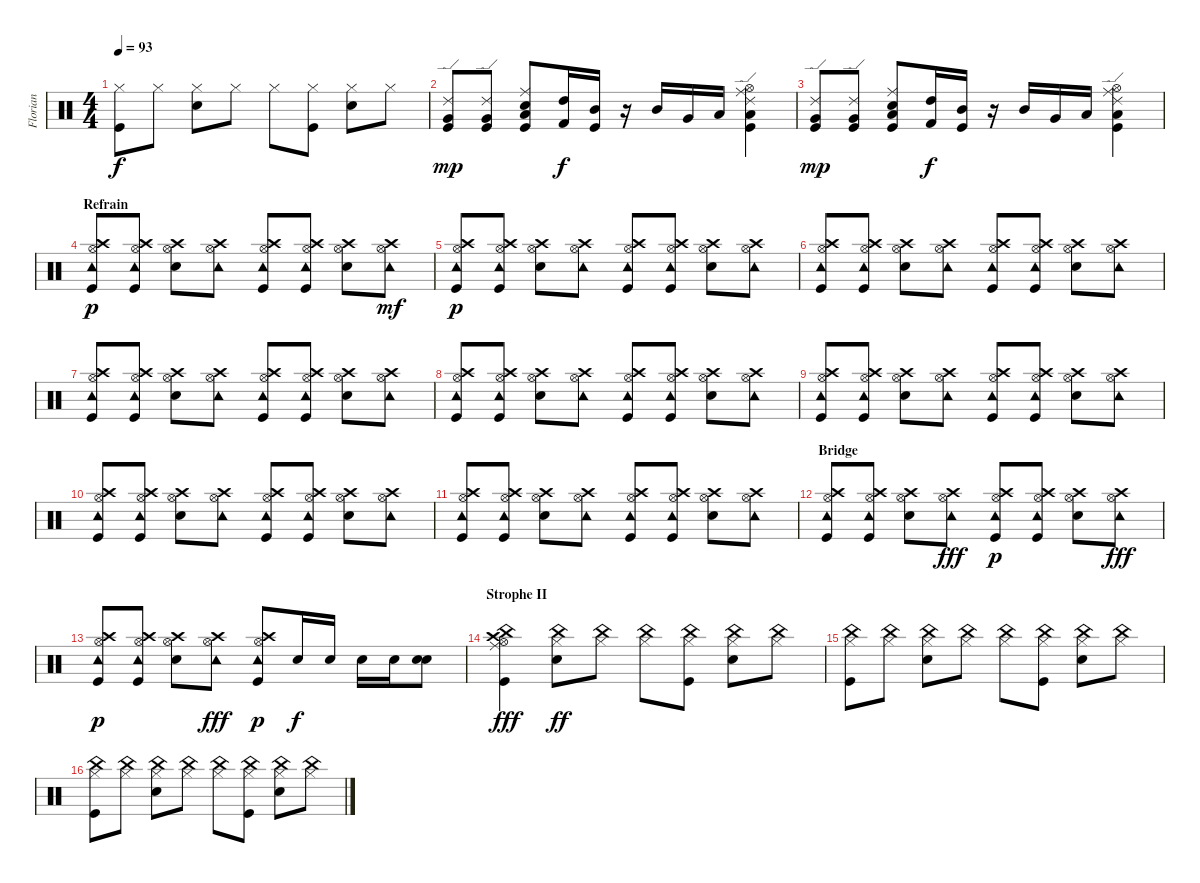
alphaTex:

\track ("Florian" "Florian") {instrument percussion}
\staff {score}
\articulation defaults
\ts (4 4)
\tempo 93
\clef neutral
\ks c
("Hi-Hat (closed)" "Kick (hit)").8{dy f} "Hi-Hat (closed)".8 ("Hi-Hat (closed)" "Snare (hit) 2").8 "Hi-Hat (closed)".8 "Hi-Hat (closed)".8 ("Hi-Hat (closed)" "Kick (hit)").8 ("Hi-Hat (closed)" "Snare (hit) 2").8 "Hi-Hat (closed)".8 |
("Ride (edge) 2" "Kick (hit)" "Very Low Tom (hit)").8{dy mp} ("Ride (edge) 2" "Kick (hit)" "Very Low Tom (hit)").8 ("Ride (middle)" "Snare (hit) 2" "Kick (hit)" "Low Tom (hit)").8 ("Kick (hit) 2" "High Tom (hit)").16{dy f} ("Kick (hit)" "Mid Tom (hit)").16 r.16 "Mid Tom (hit)".16 "Very Low Tom (hit)".16 "Low Tom (hit)".16 ("Ride (edge) 2" "Ride (middle)" "Hi-Hat (open)" "Low Tom (hit)" "Kick (hit)").4 |
("Ride (edge) 2" "Kick (hit)" "Very Low Tom (hit)").8{dy mp} ("Ride (edge) 2" "Kick (hit)" "Very Low Tom (hit)").8 ("Ride (middle)" "Snare (hit) 2" "Kick (hit)" "Low Tom (hit)").8 ("Kick (hit) 2" "High Tom (hit)").16{dy f} ("Kick (hit)" "Mid Tom (hit)").16 r.16 "Mid Tom (hit)".16 "Very Low Tom (hit)".16 "Low Tom (hit)".16 ("Ride (edge) 2" "Ride (middle)" "Hi-Hat (open)" "Low Tom (hit)" "Kick (hit)").4 |
\section ("" "Refrain")
("Crash high (hit)" "Hi-Hat (open)" "Tambourine (hit)" "Kick (hit)").8{dy p volume 16} ("Crash high (hit)" "Hi-Hat (open)" "Tambourine (hit)" "Kick (hit)").8 ("Crash high (hit)" "Hi-Hat (open)" "Snare (hit) 2").8 ("Crash high (hit)" "Hi-Hat (open)" "Tambourine (hit)").8 ("Crash high (hit)" "Hi-Hat (open)" "Tambourine (hit)" "Kick (hit)").8 ("Crash high (hit)" "Hi-Hat (open)" "Tambourine (hit)" "Kick (hit)").8 ("Crash high (hit)" "Hi-Hat (open)" "Snare (hit) 2").8 ("Crash high (hit)" "Hi-Hat (open)" "Tambourine (hit)").8{dy mf} |
("Crash high (hit)" "Hi-Hat (open)" "Tambourine (hit)" "Kick (hit)").8{dy p} ("Crash high (hit)" "Hi-Hat (open)" "Tambourine (hit)" "Kick (hit)").8 ("Crash high (hit)" "Hi-Hat (open)" "Snare (hit) 2").8 ("Crash high (hit)" "Hi-Hat (open)" "Tambourine (hit)").8 ("Crash high (hit)" "Hi-Hat (open)" "Tambourine (hit)" "Kick (hit)").8 ("Crash high (hit)" "Hi-Hat (open)" "Tambourine (hit)" "Kick (hit)").8 ("Crash high (hit)" "Hi-Hat (open)" "Snare (hit) 2").8 ("Crash high (hit)" "Hi-Hat (open)" "Tambourine (hit)").8 |
("Crash high (hit)" "Hi-Hat (open)" "Tambourine (hit)" "Kick (hit)").8 ("Crash high (hit)" "Hi-Hat (open)" "Tambourine (hit)" "Kick (hit)").8 ("Crash high (hit)" "Hi-Hat (open)" "Snare (hit) 2").8 ("Crash high (hit)" "Hi-Hat (open)" "Tambourine (hit)").8 ("Crash high (hit)" "Hi-Hat (open)" "Tambourine (hit)" "Kick (hit)").8 ("Crash high (hit)" "Hi-Hat (open)" "Tambourine (hit)" "Kick (hit)").8 ("Crash high (hit)" "Hi-Hat (open)" "Snare (hit) 2").8 ("Crash high (hit)" "Hi-Hat (open)" "Tambourine (hit)").8 |
("Crash high (hit)" "Hi-Hat (open)" "Tambourine (hit)" "Kick (hit)").8 ("Crash high (hit)" "Hi-Hat (open)" "Tambourine (hit)" "Kick (hit)").8 ("Crash high (hit)" "Hi-Hat (open)" "Snare (hit) 2").8 ("Crash high (hit)" "Hi-Hat (open)" "Tambourine (hit)").8 ("Crash high (hit)" "Hi-Hat (open)" "Tambourine (hit)" "Kick (hit)").8 ("Crash high (hit)" "Hi-Hat (open)" "Tambourine (hit)" "Kick (hit)").8 ("Crash high (hit)" "Hi-Hat (open)" "Snare (hit) 2").8 ("Crash high (hit)" "Hi-Hat (open)" "Tambourine (hit)").8 |
("Crash high (hit)" "Hi-Hat (open)" "Tambourine (hit)" "Kick (hit)").8 ("Crash high (hit)" "Hi-Hat (open)" "Tambourine (hit)" "Kick (hit)").8 ("Crash high (hit)" "Hi-Hat (open)" "Snare (hit) 2").8 ("Crash high (hit)" "Hi-Hat (open)" "Tambourine (hit)").8 ("Crash high (hit)" "Hi-Hat (open)" "Tambourine (hit)" "Kick (hit)").8 ("Crash high (hit)" "Hi-Hat (open)" "Tambourine (hit)" "Kick (hit)").8 ("Crash high (hit)" "Hi-Hat (open)" "Snare (hit) 2").8 ("Crash high (hit)" "Hi-Hat (open)" "Tambourine (hit)").8 |
("Crash high (hit)" "Hi-Hat (open)" "Tambourine (hit)" "Kick (hit)").8 ("Crash high (hit)" "Hi-Hat (open)" "Tambourine (hit)" "Kick (hit)").8 ("Crash high (hit)" "Hi-Hat (open)" "Snare (hit) 2").8 ("Crash high (hit)" "Hi-Hat (open)" "Tambourine (hit)").8 ("Crash high (hit)" "Hi-Hat (open)" "Tambourine (hit)" "Kick (hit)").8 ("Crash high (hit)" "Hi-Hat (open)" "Tambourine (hit)" "Kick (hit)").8 ("Crash high (hit)" "Hi-Hat (open)" "Snare (hit) 2").8 ("Crash high (hit)" "Hi-Hat (open)" "Tambourine (hit)").8 |
("Crash high (hit)" "Hi-Hat (open)" "Tambourine (hit)" "Kick (hit)").8 ("Crash high (hit)" "Hi-Hat (open)" "Tambourine (hit)" "Kick (hit)").8 ("Crash high (hit)" "Hi-Hat (open)" "Snare (hit) 2").8 ("Crash high (hit)" "Hi-Hat (open)" "Tambourine (hit)").8 ("Crash high (hit)" "Hi-Hat (open)" "Tambourine (hit)" "Kick (hit)").8 ("Crash high (hit)" "Hi-Hat (open)" "Tambourine (hit)" "Kick (hit)").8 ("Crash high (hit)" "Hi-Hat (open)" "Snare (hit) 2").8 ("Crash high (hit)" "Hi-Hat (open)" "Tambourine (hit)").8 |
("Crash high (hit)" "Hi-Hat (open)" "Tambourine (hit)" "Kick (hit)").8 ("Crash high (hit)" "Hi-Hat (open)" "Tambourine (hit)" "Kick (hit)").8 ("Crash high (hit)" "Hi-Hat (open)" "Snare (hit) 2").8 ("Crash high (hit)" "Hi-Hat (open)" "Tambourine (hit)").8 ("Crash high (hit)" "Hi-Hat (open)" "Tambourine (hit)" "Kick (hit)").8 ("Crash high (hit)" "Hi-Hat (open)" "Tambourine (hit)" "Kick (hit)").8 ("Crash high (hit)" "Hi-Hat (open)" "Snare (hit) 2").8 ("Crash high (hit)" "Hi-Hat (open)" "Tambourine (hit)").8 |
\section ("" "Bridge")
("Crash high (hit)" "Hi-Hat (open)" "Tambourine (hit)" "Kick (hit)").8 ("Crash high (hit)" "Hi-Hat (open)" "Tambourine (hit)" "Kick (hit)").8 ("Crash high (hit)" "Hi-Hat (open)" "Snare (hit) 2").8 ("Crash high (hit)" "Hi-Hat (open)" "Tambourine (hit)").8{dy fff} ("Crash high (hit)" "Hi-Hat (open)" "Tambourine (hit)" "Kick (hit)").8{dy p} ("Crash high (hit)" "Hi-Hat (open)" "Tambourine (hit)" "Kick (hit)").8 ("Crash high (hit)" "Hi-Hat (open)" "Snare (hit) 2").8 ("Crash high (hit)" "Hi-Hat (open)" "Tambourine (hit)").8{dy fff} |
("Crash high (hit)" "Hi-Hat (open)" "Tambourine (hit)" "Kick (hit)").8{dy p} ("Crash high (hit)" "Hi-Hat (open)" "Tambourine (hit)" "Kick (hit)").8 ("Crash high (hit)" "Hi-Hat (open)" "Snare (hit) 2").8 ("Crash high (hit)" "Hi-Hat (open)" "Tambourine (hit)").8{dy fff} ("Crash high (hit)" "Hi-Hat (open)" "Tambourine (hit)" "Kick (hit)").8{dy p} "Snare (hit) 2".16{dy f} "Snare (hit) 2".16 "Snare (hit) 2".16 "Electric Snare (hit)".16 ("Electric Snare (hit)" "Electric Snare (hit)").8 |
\section ("" "Strophe II")
("Ride (middle)" "Crash high (hit)" "Kick (hit)" "Hi-Hat (open)" "China (hit)").4{dy fff} ("Hi-Hat (closed)" "China (hit)" "Snare (hit) 2").8{dy ff} ("Hi-Hat (closed)" "China (hit)").8 ("Hi-Hat (closed)" "China (hit)").8 ("Hi-Hat (closed)" "China (hit)" "Kick (hit)").8 ("Hi-Hat (closed)" "China (hit)" "Snare (hit) 2").8 ("Hi-Hat (closed)" "China (hit)").8 |
("Hi-Hat (closed)" "China (hit)" "Kick (hit)").8 ("Hi-Hat (closed)" "China (hit)").8 ("Hi-Hat (closed)" "China (hit)" "Snare (hit) 2").8 ("Hi-Hat (closed)" "China (hit)").8 ("Hi-Hat (closed)" "China (hit)").8 ("Hi-Hat (closed)" "China (hit)" "Kick (hit)").8 ("Hi-Hat (closed)" "China (hit)" "Snare (hit) 2").8 ("Hi-Hat (closed)" "China (hit)").8 |
("Hi-Hat (closed)" "China (hit)" "Kick (hit)").8 ("Hi-Hat (closed)" "China (hit)").8 ("Hi-Hat (closed)" "China (hit)" "Snare (hit) 2").8 ("Hi-Hat (closed)" "China (hit)").8 ("Hi-Hat (closed)" "China (hit)").8 ("Hi-Hat (closed)" "China (hit)" "Kick (hit)").8 ("Hi-Hat (closed)" "China (hit)" "Snare (hit) 2").8 ("Hi-Hat (closed)" "China (hit)").8
